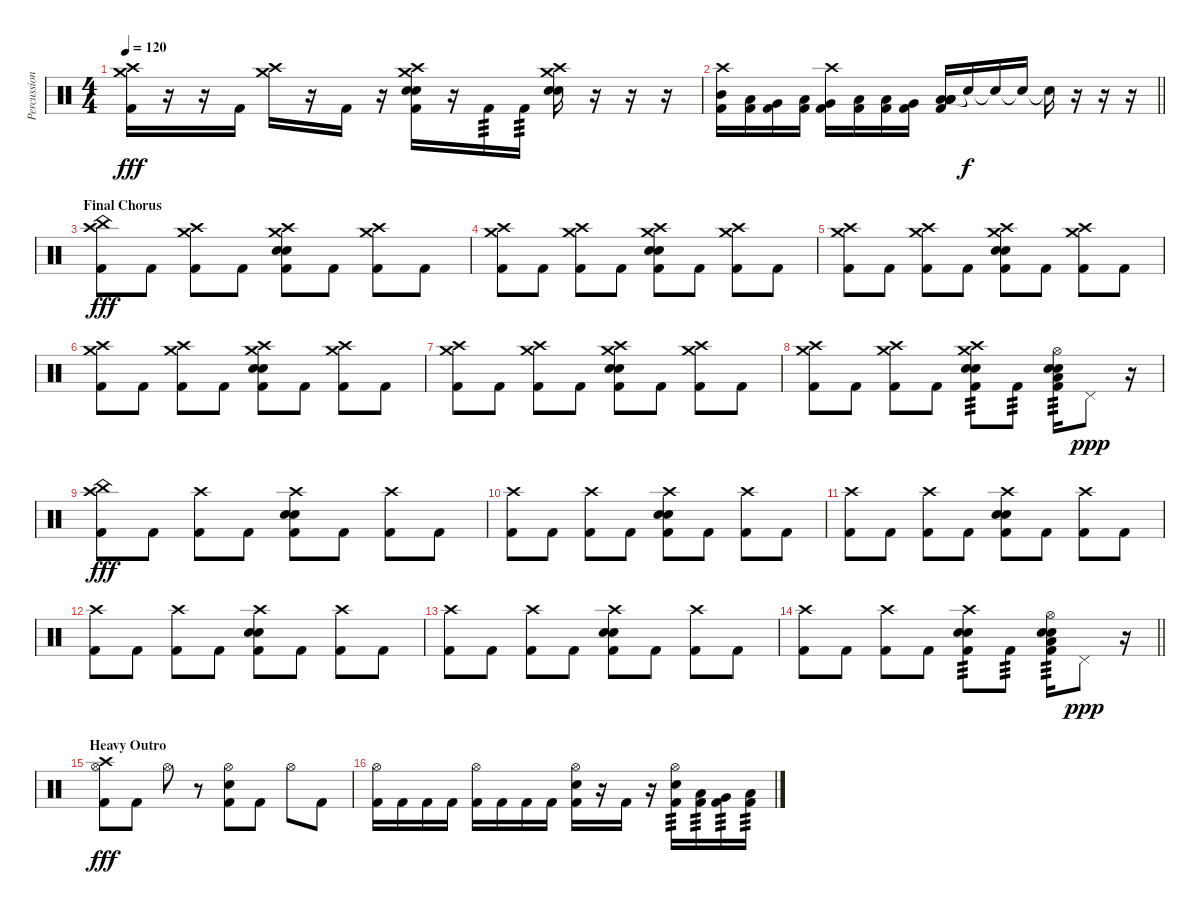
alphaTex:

\track ("Percussion" "Percussion") {instrument percussion}
\staff {score}
\articulation defaults
\ts (4 4)
\tempo 120
\clef neutral
\ks c
("Crash medium (hit)" "Crash high (hit)" "Kick (hit) 2").16{dy fff} r.16 r.16 "Kick (hit) 2".16 ("Crash medium (hit)" "Crash high (hit)").16 r.16 "Kick (hit) 2".16 r.16 ("Crash medium (hit)" "Crash high (hit)" "Snare (hit) 2" "Electric Snare (hit)" "Kick (hit) 2").16 r.16 "Kick (hit) 2".16{tp 3} "Kick (hit) 2".16{tp 3} ("Crash medium (hit)" "Crash high (hit)" "Snare (hit) 2" "Electric Snare (hit)").16 r.16 r.16 r.16 |
\barLineRight lightlight
("Crash high (hit)" "Mid Tom (hit)" "Kick (hit) 2").16 ("Low Tom (hit)" "Kick (hit) 2").16 ("Very Low Tom (hit)" "Kick (hit) 2").16 ("Low Tom (hit)" "Kick (hit) 2").16 ("Crash high (hit)" "Very Low Tom (hit)" "Kick (hit) 2").16 ("Low Floor Tom (hit)" "Kick (hit) 2").16 ("Low Tom (hit)" "Kick (hit) 2").16 ("Very Low Tom (hit)" "Kick (hit) 2").16 ("Low Floor Tom (hit)" "Low Floor Tom (hit)" "Low Floor Tom (hit)" "Low Floor Tom (hit)" "Kick (hit) 2").16 "Snare (hit)"{t}.16{dy f} "Snare (hit)"{t}.16 "Snare (hit)"{t}.16 "Snare (hit)"{t}.16 r.16 r.16 r.16 |
\section ("" "Final Chorus")
("China (hit)" "Crash high (hit)" "Kick (hit) 2").8{dy fff} "Kick (hit) 2".8 ("Crash medium (hit)" "Crash high (hit)" "Kick (hit) 2").8 "Kick (hit) 2".8 ("Crash medium (hit)" "Crash high (hit)" "Snare (hit) 2" "Snare (hit) 2" "Kick (hit) 2").8 "Kick (hit) 2".8 ("Crash medium (hit)" "Crash high (hit)" "Kick (hit) 2").8 "Kick (hit) 2".8 |
("Crash medium (hit)" "Crash high (hit)" "Kick (hit) 2").8 "Kick (hit) 2".8 ("Crash medium (hit)" "Crash high (hit)" "Kick (hit) 2").8 "Kick (hit) 2".8 ("Crash medium (hit)" "Crash high (hit)" "Snare (hit) 2" "Snare (hit) 2" "Kick (hit) 2").8 "Kick (hit) 2".8 ("Crash medium (hit)" "Crash high (hit)" "Kick (hit) 2").8 "Kick (hit) 2".8 |
("Crash medium (hit)" "Crash high (hit)" "Kick (hit) 2").8 "Kick (hit) 2".8 ("Crash medium (hit)" "Crash high (hit)" "Kick (hit) 2").8 "Kick (hit) 2".8 ("Crash medium (hit)" "Crash high (hit)" "Snare (hit) 2" "Snare (hit) 2" "Kick (hit) 2").8 "Kick (hit) 2".8 ("Crash medium (hit)" "Crash high (hit)" "Kick (hit) 2").8 "Kick (hit) 2".8 |
("Crash medium (hit)" "Crash high (hit)" "Kick (hit) 2").8 "Kick (hit) 2".8 ("Crash medium (hit)" "Crash high (hit)" "Kick (hit) 2").8 "Kick (hit) 2".8 ("Crash medium (hit)" "Crash high (hit)" "Snare (hit) 2" "Snare (hit) 2" "Kick (hit) 2").8 "Kick (hit) 2".8 ("Crash medium (hit)" "Crash high (hit)" "Kick (hit) 2").8 "Kick (hit) 2".8 |
("Crash medium (hit)" "Crash high (hit)" "Kick (hit) 2").8 "Kick (hit) 2".8 ("Crash medium (hit)" "Crash high (hit)" "Kick (hit) 2").8 "Kick (hit) 2".8 ("Crash medium (hit)" "Crash high (hit)" "Snare (hit) 2" "Snare (hit) 2" "Kick (hit) 2").8 "Kick (hit) 2".8 ("Crash medium (hit)" "Crash high (hit)" "Kick (hit) 2").8 "Kick (hit) 2".8 |
("Crash medium (hit)" "Crash high (hit)" "Kick (hit) 2").8 "Kick (hit) 2".8 ("Crash medium (hit)" "Crash high (hit)" "Kick (hit) 2").8 "Kick (hit) 2".8 ("Crash medium (hit)" "Crash high (hit)" "Snare (hit) 2" "Snare (hit) 2" "Kick (hit) 2").8{tp 3} "Kick (hit) 2".8{tp 3} ("Hi-Hat (open)" "Snare (hit) 2" "Snare (hit) 2" "Low Floor Tom (hit)" "Kick (hit) 2").16{tp 3} "Pedal Hi-Hat (hit)".8{dy ppp} r.16 |
("China (hit)" "Crash high (hit)" "Kick (hit) 2").8{dy fff} "Kick (hit) 2".8 ("Crash high (hit)" "Kick (hit) 2").8 "Kick (hit) 2".8 ("Crash high (hit)" "Snare (hit) 2" "Snare (hit) 2" "Kick (hit) 2").8 "Kick (hit) 2".8 ("Crash high (hit)" "Kick (hit) 2").8 "Kick (hit) 2".8 |
("Crash high (hit)" "Kick (hit) 2").8 "Kick (hit) 2".8 ("Crash high (hit)" "Kick (hit) 2").8 "Kick (hit) 2".8 ("Crash high (hit)" "Snare (hit) 2" "Snare (hit) 2" "Kick (hit) 2").8 "Kick (hit) 2".8 ("Crash high (hit)" "Kick (hit) 2").8 "Kick (hit) 2".8 |
("Crash high (hit)" "Kick (hit) 2").8 "Kick (hit) 2".8 ("Crash high (hit)" "Kick (hit) 2").8 "Kick (hit) 2".8 ("Crash high (hit)" "Snare (hit) 2" "Snare (hit) 2" "Kick (hit) 2").8 "Kick (hit) 2".8 ("Crash high (hit)" "Kick (hit) 2").8 "Kick (hit) 2".8 |
("Crash high (hit)" "Kick (hit) 2").8 "Kick (hit) 2".8 ("Crash high (hit)" "Kick (hit) 2").8 "Kick (hit) 2".8 ("Crash high (hit)" "Snare (hit) 2" "Snare (hit) 2" "Kick (hit) 2").8 "Kick (hit) 2".8 ("Crash high (hit)" "Kick (hit) 2").8 "Kick (hit) 2".8 |
("Crash high (hit)" "Kick (hit) 2").8 "Kick (hit) 2".8 ("Crash high (hit)" "Kick (hit) 2").8 "Kick (hit) 2".8 ("Crash high (hit)" "Snare (hit) 2" "Snare (hit) 2" "Kick (hit) 2").8 "Kick (hit) 2".8 ("Crash high (hit)" "Kick (hit) 2").8 "Kick (hit) 2".8 |
\barLineRight lightlight
("Crash high (hit)" "Kick (hit) 2").8 "Kick (hit) 2".8 ("Crash high (hit)" "Kick (hit) 2").8 "Kick (hit) 2".8 ("Crash high (hit)" "Snare (hit) 2" "Snare (hit) 2" "Kick (hit) 2").8{tp 3} "Kick (hit) 2".8{tp 3} ("Hi-Hat (open)" "Snare (hit) 2" "Snare (hit) 2" "Low Floor Tom (hit)" "Kick (hit) 2").16{tp 3} "Pedal Hi-Hat (hit)".8{dy ppp} r.16 |
\section ("" "Heavy Outro")
("Crash high (hit)" "Hi-Hat (open)" "Kick (hit) 2").8{dy fff} "Kick (hit) 2".8 "Hi-Hat (open)".8 r.8 ("Hi-Hat (open)" "Snare (hit) 2" "Kick (hit) 2").8 "Kick (hit) 2".8 "Hi-Hat (open)".8 "Kick (hit) 2".8 |
("Hi-Hat (open)" "Kick (hit) 2").16 "Kick (hit) 2".16 "Kick (hit) 2".16 "Kick (hit) 2".16 ("Hi-Hat (open)" "Kick (hit) 2").16 "Kick (hit) 2".16 "Kick (hit) 2".16 "Kick (hit) 2".16 ("Hi-Hat (open)" "Snare (hit) 2" "Kick (hit) 2").16 r.16 "Kick (hit) 2".16 r.16 ("Hi-Hat (open)" "Snare (hit) 2" "Kick (hit) 2").16{tp 3} ("Low Tom (hit)" "Kick (hit) 2").16{tp 3} ("Very Low Tom (hit)" "Kick (hit) 2").16{tp 3} ("Low Floor Tom (hit)" "Kick (hit) 2").16{tp 3}
